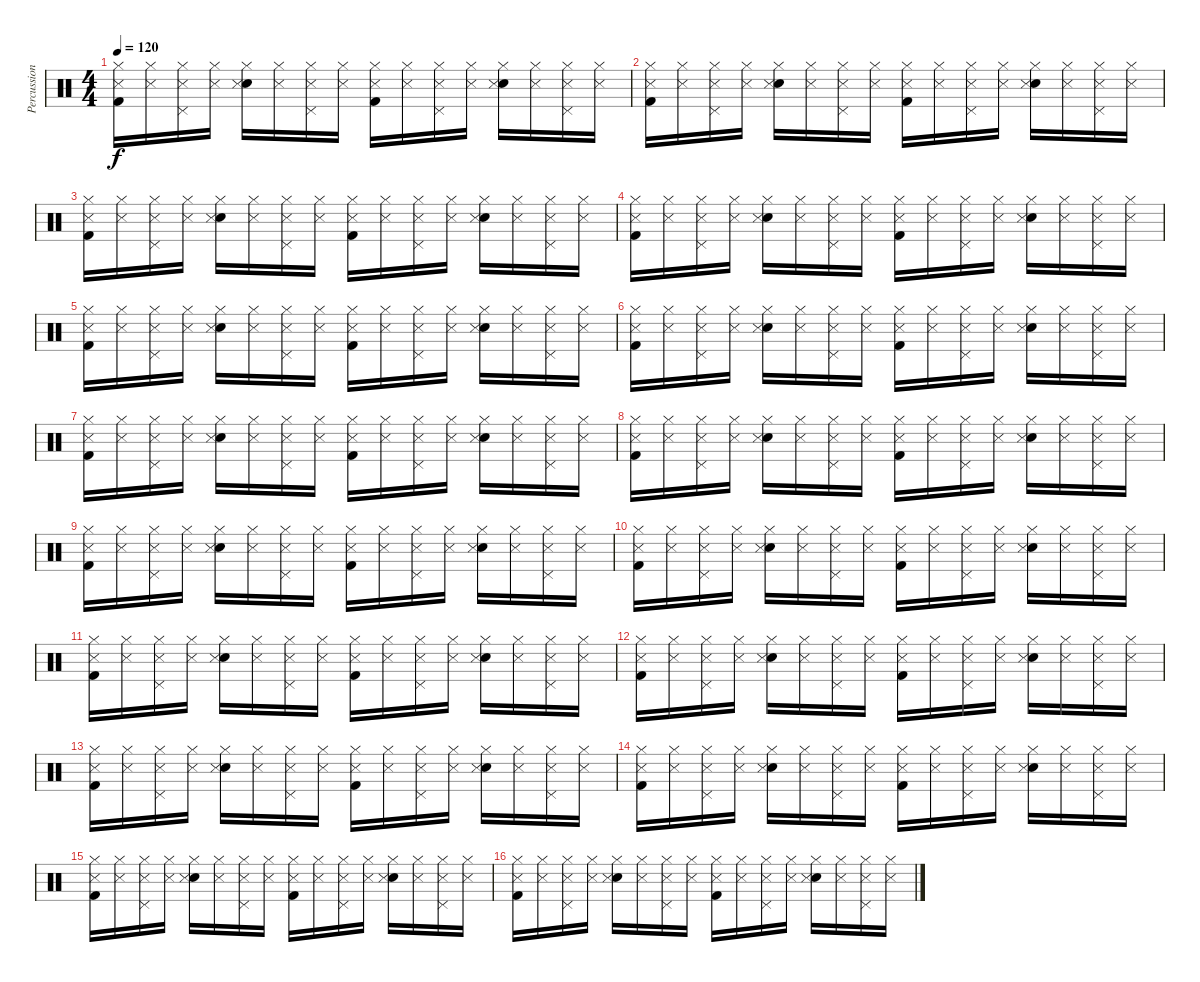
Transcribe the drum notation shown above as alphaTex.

\track ("Percussion" "Percussion") {instrument percussion}
\staff {score}
\articulation defaults
\ts (4 4)
\tempo 120
\clef neutral
\ks c
("Hi-Hat (closed)" "Kick (hit) 2" "Metronome (hit)").16{dy f} ("Hi-Hat (closed)" "Metronome (hit)").16 ("Hi-Hat (closed)" "Pedal Hi-Hat (hit)" "Metronome (hit)").16 ("Hi-Hat (closed)" "Metronome (hit)").16 ("Hi-Hat (closed)" "Snare (hit) 2" "Metronome (hit)").16 ("Hi-Hat (closed)" "Metronome (hit)").16 ("Hi-Hat (closed)" "Pedal Hi-Hat (hit)" "Metronome (hit)").16 ("Hi-Hat (closed)" "Metronome (hit)").16 ("Hi-Hat (closed)" "Kick (hit) 2" "Metronome (hit)").16 ("Hi-Hat (closed)" "Metronome (hit)").16 ("Hi-Hat (closed)" "Pedal Hi-Hat (hit)" "Metronome (hit)").16 ("Hi-Hat (closed)" "Metronome (hit)").16 ("Hi-Hat (closed)" "Snare (hit) 2" "Metronome (hit)").16 ("Hi-Hat (closed)" "Metronome (hit)").16 ("Hi-Hat (closed)" "Pedal Hi-Hat (hit)" "Metronome (hit)").16 ("Hi-Hat (closed)" "Metronome (hit)").16 |
("Hi-Hat (closed)" "Kick (hit) 2" "Metronome (hit)").16 ("Hi-Hat (closed)" "Metronome (hit)").16 ("Hi-Hat (closed)" "Pedal Hi-Hat (hit)" "Metronome (hit)").16 ("Hi-Hat (closed)" "Metronome (hit)").16 ("Hi-Hat (closed)" "Snare (hit) 2" "Metronome (hit)").16 ("Hi-Hat (closed)" "Metronome (hit)").16 ("Hi-Hat (closed)" "Pedal Hi-Hat (hit)" "Metronome (hit)").16 ("Hi-Hat (closed)" "Metronome (hit)").16 ("Hi-Hat (closed)" "Kick (hit) 2" "Metronome (hit)").16 ("Hi-Hat (closed)" "Metronome (hit)").16 ("Hi-Hat (closed)" "Pedal Hi-Hat (hit)" "Metronome (hit)").16 ("Hi-Hat (closed)" "Metronome (hit)").16 ("Hi-Hat (closed)" "Snare (hit) 2" "Metronome (hit)").16 ("Hi-Hat (closed)" "Metronome (hit)").16 ("Hi-Hat (closed)" "Pedal Hi-Hat (hit)" "Metronome (hit)").16 ("Hi-Hat (closed)" "Metronome (hit)").16 |
("Hi-Hat (closed)" "Kick (hit) 2" "Metronome (hit)").16 ("Hi-Hat (closed)" "Metronome (hit)").16 ("Hi-Hat (closed)" "Pedal Hi-Hat (hit)" "Metronome (hit)").16 ("Hi-Hat (closed)" "Metronome (hit)").16 ("Hi-Hat (closed)" "Snare (hit) 2" "Metronome (hit)").16 ("Hi-Hat (closed)" "Metronome (hit)").16 ("Hi-Hat (closed)" "Pedal Hi-Hat (hit)" "Metronome (hit)").16 ("Hi-Hat (closed)" "Metronome (hit)").16 ("Hi-Hat (closed)" "Kick (hit) 2" "Metronome (hit)").16 ("Hi-Hat (closed)" "Metronome (hit)").16 ("Hi-Hat (closed)" "Pedal Hi-Hat (hit)" "Metronome (hit)").16 ("Hi-Hat (closed)" "Metronome (hit)").16 ("Hi-Hat (closed)" "Snare (hit) 2" "Metronome (hit)").16 ("Hi-Hat (closed)" "Metronome (hit)").16 ("Hi-Hat (closed)" "Pedal Hi-Hat (hit)" "Metronome (hit)").16 ("Hi-Hat (closed)" "Metronome (hit)").16 |
("Hi-Hat (closed)" "Kick (hit) 2" "Metronome (hit)").16 ("Hi-Hat (closed)" "Metronome (hit)").16 ("Hi-Hat (closed)" "Pedal Hi-Hat (hit)" "Metronome (hit)").16 ("Hi-Hat (closed)" "Metronome (hit)").16 ("Hi-Hat (closed)" "Snare (hit) 2" "Metronome (hit)").16 ("Hi-Hat (closed)" "Metronome (hit)").16 ("Hi-Hat (closed)" "Pedal Hi-Hat (hit)" "Metronome (hit)").16 ("Hi-Hat (closed)" "Metronome (hit)").16 ("Hi-Hat (closed)" "Kick (hit) 2" "Metronome (hit)").16 ("Hi-Hat (closed)" "Metronome (hit)").16 ("Hi-Hat (closed)" "Pedal Hi-Hat (hit)" "Metronome (hit)").16 ("Hi-Hat (closed)" "Metronome (hit)").16 ("Hi-Hat (closed)" "Snare (hit) 2" "Metronome (hit)").16 ("Hi-Hat (closed)" "Metronome (hit)").16 ("Hi-Hat (closed)" "Pedal Hi-Hat (hit)" "Metronome (hit)").16 ("Hi-Hat (closed)" "Metronome (hit)").16 |
("Hi-Hat (closed)" "Kick (hit) 2" "Metronome (hit)").16 ("Hi-Hat (closed)" "Metronome (hit)").16 ("Hi-Hat (closed)" "Pedal Hi-Hat (hit)" "Metronome (hit)").16 ("Hi-Hat (closed)" "Metronome (hit)").16 ("Hi-Hat (closed)" "Snare (hit) 2" "Metronome (hit)").16 ("Hi-Hat (closed)" "Metronome (hit)").16 ("Hi-Hat (closed)" "Pedal Hi-Hat (hit)" "Metronome (hit)").16 ("Hi-Hat (closed)" "Metronome (hit)").16 ("Hi-Hat (closed)" "Kick (hit) 2" "Metronome (hit)").16 ("Hi-Hat (closed)" "Metronome (hit)").16 ("Hi-Hat (closed)" "Pedal Hi-Hat (hit)" "Metronome (hit)").16 ("Hi-Hat (closed)" "Metronome (hit)").16 ("Hi-Hat (closed)" "Snare (hit) 2" "Metronome (hit)").16 ("Hi-Hat (closed)" "Metronome (hit)").16 ("Hi-Hat (closed)" "Pedal Hi-Hat (hit)" "Metronome (hit)").16 ("Hi-Hat (closed)" "Metronome (hit)").16 |
("Hi-Hat (closed)" "Kick (hit) 2" "Metronome (hit)").16 ("Hi-Hat (closed)" "Metronome (hit)").16 ("Hi-Hat (closed)" "Pedal Hi-Hat (hit)" "Metronome (hit)").16 ("Hi-Hat (closed)" "Metronome (hit)").16 ("Hi-Hat (closed)" "Snare (hit) 2" "Metronome (hit)").16 ("Hi-Hat (closed)" "Metronome (hit)").16 ("Hi-Hat (closed)" "Pedal Hi-Hat (hit)" "Metronome (hit)").16 ("Hi-Hat (closed)" "Metronome (hit)").16 ("Hi-Hat (closed)" "Kick (hit) 2" "Metronome (hit)").16 ("Hi-Hat (closed)" "Metronome (hit)").16 ("Hi-Hat (closed)" "Pedal Hi-Hat (hit)" "Metronome (hit)").16 ("Hi-Hat (closed)" "Metronome (hit)").16 ("Hi-Hat (closed)" "Snare (hit) 2" "Metronome (hit)").16 ("Hi-Hat (closed)" "Metronome (hit)").16 ("Hi-Hat (closed)" "Pedal Hi-Hat (hit)" "Metronome (hit)").16 ("Hi-Hat (closed)" "Metronome (hit)").16 |
("Hi-Hat (closed)" "Kick (hit) 2" "Metronome (hit)").16 ("Hi-Hat (closed)" "Metronome (hit)").16 ("Hi-Hat (closed)" "Pedal Hi-Hat (hit)" "Metronome (hit)").16 ("Hi-Hat (closed)" "Metronome (hit)").16 ("Hi-Hat (closed)" "Snare (hit) 2" "Metronome (hit)").16 ("Hi-Hat (closed)" "Metronome (hit)").16 ("Hi-Hat (closed)" "Pedal Hi-Hat (hit)" "Metronome (hit)").16 ("Hi-Hat (closed)" "Metronome (hit)").16 ("Hi-Hat (closed)" "Kick (hit) 2" "Metronome (hit)").16 ("Hi-Hat (closed)" "Metronome (hit)").16 ("Hi-Hat (closed)" "Pedal Hi-Hat (hit)" "Metronome (hit)").16 ("Hi-Hat (closed)" "Metronome (hit)").16 ("Hi-Hat (closed)" "Snare (hit) 2" "Metronome (hit)").16 ("Hi-Hat (closed)" "Metronome (hit)").16 ("Hi-Hat (closed)" "Pedal Hi-Hat (hit)" "Metronome (hit)").16 ("Hi-Hat (closed)" "Metronome (hit)").16 |
("Hi-Hat (closed)" "Kick (hit) 2" "Metronome (hit)").16 ("Hi-Hat (closed)" "Metronome (hit)").16 ("Hi-Hat (closed)" "Pedal Hi-Hat (hit)" "Metronome (hit)").16 ("Hi-Hat (closed)" "Metronome (hit)").16 ("Hi-Hat (closed)" "Snare (hit) 2" "Metronome (hit)").16 ("Hi-Hat (closed)" "Metronome (hit)").16 ("Hi-Hat (closed)" "Pedal Hi-Hat (hit)" "Metronome (hit)").16 ("Hi-Hat (closed)" "Metronome (hit)").16 ("Hi-Hat (closed)" "Kick (hit) 2" "Metronome (hit)").16 ("Hi-Hat (closed)" "Metronome (hit)").16 ("Hi-Hat (closed)" "Pedal Hi-Hat (hit)" "Metronome (hit)").16 ("Hi-Hat (closed)" "Metronome (hit)").16 ("Hi-Hat (closed)" "Snare (hit) 2" "Metronome (hit)").16 ("Hi-Hat (closed)" "Metronome (hit)").16 ("Hi-Hat (closed)" "Pedal Hi-Hat (hit)" "Metronome (hit)").16 ("Hi-Hat (closed)" "Metronome (hit)").16 |
("Hi-Hat (closed)" "Kick (hit) 2" "Metronome (hit)").16 ("Hi-Hat (closed)" "Metronome (hit)").16 ("Hi-Hat (closed)" "Pedal Hi-Hat (hit)" "Metronome (hit)").16 ("Hi-Hat (closed)" "Metronome (hit)").16 ("Hi-Hat (closed)" "Snare (hit) 2" "Metronome (hit)").16 ("Hi-Hat (closed)" "Metronome (hit)").16 ("Hi-Hat (closed)" "Pedal Hi-Hat (hit)" "Metronome (hit)").16 ("Hi-Hat (closed)" "Metronome (hit)").16 ("Hi-Hat (closed)" "Kick (hit) 2" "Metronome (hit)").16 ("Hi-Hat (closed)" "Metronome (hit)").16 ("Hi-Hat (closed)" "Pedal Hi-Hat (hit)" "Metronome (hit)").16 ("Hi-Hat (closed)" "Metronome (hit)").16 ("Hi-Hat (closed)" "Snare (hit) 2" "Metronome (hit)").16 ("Hi-Hat (closed)" "Metronome (hit)").16 ("Hi-Hat (closed)" "Pedal Hi-Hat (hit)" "Metronome (hit)").16 ("Hi-Hat (closed)" "Metronome (hit)").16 |
("Hi-Hat (closed)" "Kick (hit) 2" "Metronome (hit)").16 ("Hi-Hat (closed)" "Metronome (hit)").16 ("Hi-Hat (closed)" "Pedal Hi-Hat (hit)" "Metronome (hit)").16 ("Hi-Hat (closed)" "Metronome (hit)").16 ("Hi-Hat (closed)" "Snare (hit) 2" "Metronome (hit)").16 ("Hi-Hat (closed)" "Metronome (hit)").16 ("Hi-Hat (closed)" "Pedal Hi-Hat (hit)" "Metronome (hit)").16 ("Hi-Hat (closed)" "Metronome (hit)").16 ("Hi-Hat (closed)" "Kick (hit) 2" "Metronome (hit)").16 ("Hi-Hat (closed)" "Metronome (hit)").16 ("Hi-Hat (closed)" "Pedal Hi-Hat (hit)" "Metronome (hit)").16 ("Hi-Hat (closed)" "Metronome (hit)").16 ("Hi-Hat (closed)" "Snare (hit) 2" "Metronome (hit)").16 ("Hi-Hat (closed)" "Metronome (hit)").16 ("Hi-Hat (closed)" "Pedal Hi-Hat (hit)" "Metronome (hit)").16 ("Hi-Hat (closed)" "Metronome (hit)").16 |
("Hi-Hat (closed)" "Kick (hit) 2" "Metronome (hit)").16 ("Hi-Hat (closed)" "Metronome (hit)").16 ("Hi-Hat (closed)" "Pedal Hi-Hat (hit)" "Metronome (hit)").16 ("Hi-Hat (closed)" "Metronome (hit)").16 ("Hi-Hat (closed)" "Snare (hit) 2" "Metronome (hit)").16 ("Hi-Hat (closed)" "Metronome (hit)").16 ("Hi-Hat (closed)" "Pedal Hi-Hat (hit)" "Metronome (hit)").16 ("Hi-Hat (closed)" "Metronome (hit)").16 ("Hi-Hat (closed)" "Kick (hit) 2" "Metronome (hit)").16 ("Hi-Hat (closed)" "Metronome (hit)").16 ("Hi-Hat (closed)" "Pedal Hi-Hat (hit)" "Metronome (hit)").16 ("Hi-Hat (closed)" "Metronome (hit)").16 ("Hi-Hat (closed)" "Snare (hit) 2" "Metronome (hit)").16 ("Hi-Hat (closed)" "Metronome (hit)").16 ("Hi-Hat (closed)" "Pedal Hi-Hat (hit)" "Metronome (hit)").16 ("Hi-Hat (closed)" "Metronome (hit)").16 |
("Hi-Hat (closed)" "Kick (hit) 2" "Metronome (hit)").16 ("Hi-Hat (closed)" "Metronome (hit)").16 ("Hi-Hat (closed)" "Pedal Hi-Hat (hit)" "Metronome (hit)").16 ("Hi-Hat (closed)" "Metronome (hit)").16 ("Hi-Hat (closed)" "Snare (hit) 2" "Metronome (hit)").16 ("Hi-Hat (closed)" "Metronome (hit)").16 ("Hi-Hat (closed)" "Pedal Hi-Hat (hit)" "Metronome (hit)").16 ("Hi-Hat (closed)" "Metronome (hit)").16 ("Hi-Hat (closed)" "Kick (hit) 2" "Metronome (hit)").16 ("Hi-Hat (closed)" "Metronome (hit)").16 ("Hi-Hat (closed)" "Pedal Hi-Hat (hit)" "Metronome (hit)").16 ("Hi-Hat (closed)" "Metronome (hit)").16 ("Hi-Hat (closed)" "Snare (hit) 2" "Metronome (hit)").16 ("Hi-Hat (closed)" "Metronome (hit)").16 ("Hi-Hat (closed)" "Pedal Hi-Hat (hit)" "Metronome (hit)").16 ("Hi-Hat (closed)" "Metronome (hit)").16 |
("Hi-Hat (closed)" "Kick (hit) 2" "Metronome (hit)").16 ("Hi-Hat (closed)" "Metronome (hit)").16 ("Hi-Hat (closed)" "Pedal Hi-Hat (hit)" "Metronome (hit)").16 ("Hi-Hat (closed)" "Metronome (hit)").16 ("Hi-Hat (closed)" "Snare (hit) 2" "Metronome (hit)").16 ("Hi-Hat (closed)" "Metronome (hit)").16 ("Hi-Hat (closed)" "Pedal Hi-Hat (hit)" "Metronome (hit)").16 ("Hi-Hat (closed)" "Metronome (hit)").16 ("Hi-Hat (closed)" "Kick (hit) 2" "Metronome (hit)").16 ("Hi-Hat (closed)" "Metronome (hit)").16 ("Hi-Hat (closed)" "Pedal Hi-Hat (hit)" "Metronome (hit)").16 ("Hi-Hat (closed)" "Metronome (hit)").16 ("Hi-Hat (closed)" "Snare (hit) 2" "Metronome (hit)").16 ("Hi-Hat (closed)" "Metronome (hit)").16 ("Hi-Hat (closed)" "Pedal Hi-Hat (hit)" "Metronome (hit)").16 ("Hi-Hat (closed)" "Metronome (hit)").16 |
("Hi-Hat (closed)" "Kick (hit) 2" "Metronome (hit)").16 ("Hi-Hat (closed)" "Metronome (hit)").16 ("Hi-Hat (closed)" "Pedal Hi-Hat (hit)" "Metronome (hit)").16 ("Hi-Hat (closed)" "Metronome (hit)").16 ("Hi-Hat (closed)" "Snare (hit) 2" "Metronome (hit)").16 ("Hi-Hat (closed)" "Metronome (hit)").16 ("Hi-Hat (closed)" "Pedal Hi-Hat (hit)" "Metronome (hit)").16 ("Hi-Hat (closed)" "Metronome (hit)").16 ("Hi-Hat (closed)" "Kick (hit) 2" "Metronome (hit)").16 ("Hi-Hat (closed)" "Metronome (hit)").16 ("Hi-Hat (closed)" "Pedal Hi-Hat (hit)" "Metronome (hit)").16 ("Hi-Hat (closed)" "Metronome (hit)").16 ("Hi-Hat (closed)" "Snare (hit) 2" "Metronome (hit)").16 ("Hi-Hat (closed)" "Metronome (hit)").16 ("Hi-Hat (closed)" "Pedal Hi-Hat (hit)" "Metronome (hit)").16 ("Hi-Hat (closed)" "Metronome (hit)").16 |
("Hi-Hat (closed)" "Kick (hit) 2" "Metronome (hit)").16 ("Hi-Hat (closed)" "Metronome (hit)").16 ("Hi-Hat (closed)" "Pedal Hi-Hat (hit)" "Metronome (hit)").16 ("Hi-Hat (closed)" "Metronome (hit)").16 ("Hi-Hat (closed)" "Snare (hit) 2" "Metronome (hit)").16 ("Hi-Hat (closed)" "Metronome (hit)").16 ("Hi-Hat (closed)" "Pedal Hi-Hat (hit)" "Metronome (hit)").16 ("Hi-Hat (closed)" "Metronome (hit)").16 ("Hi-Hat (closed)" "Kick (hit) 2" "Metronome (hit)").16 ("Hi-Hat (closed)" "Metronome (hit)").16 ("Hi-Hat (closed)" "Pedal Hi-Hat (hit)" "Metronome (hit)").16 ("Hi-Hat (closed)" "Metronome (hit)").16 ("Hi-Hat (closed)" "Snare (hit) 2" "Metronome (hit)").16 ("Hi-Hat (closed)" "Metronome (hit)").16 ("Hi-Hat (closed)" "Pedal Hi-Hat (hit)" "Metronome (hit)").16 ("Hi-Hat (closed)" "Metronome (hit)").16 |
("Hi-Hat (closed)" "Kick (hit) 2" "Metronome (hit)").16 ("Hi-Hat (closed)" "Metronome (hit)").16 ("Hi-Hat (closed)" "Pedal Hi-Hat (hit)" "Metronome (hit)").16 ("Hi-Hat (closed)" "Metronome (hit)").16 ("Hi-Hat (closed)" "Snare (hit) 2" "Metronome (hit)").16 ("Hi-Hat (closed)" "Metronome (hit)").16 ("Hi-Hat (closed)" "Pedal Hi-Hat (hit)" "Metronome (hit)").16 ("Hi-Hat (closed)" "Metronome (hit)").16 ("Hi-Hat (closed)" "Kick (hit) 2" "Metronome (hit)").16 ("Hi-Hat (closed)" "Metronome (hit)").16 ("Hi-Hat (closed)" "Pedal Hi-Hat (hit)" "Metronome (hit)").16 ("Hi-Hat (closed)" "Metronome (hit)").16 ("Hi-Hat (closed)" "Snare (hit) 2" "Metronome (hit)").16 ("Hi-Hat (closed)" "Metronome (hit)").16 ("Hi-Hat (closed)" "Pedal Hi-Hat (hit)" "Metronome (hit)").16 ("Hi-Hat (closed)" "Metronome (hit)").16
